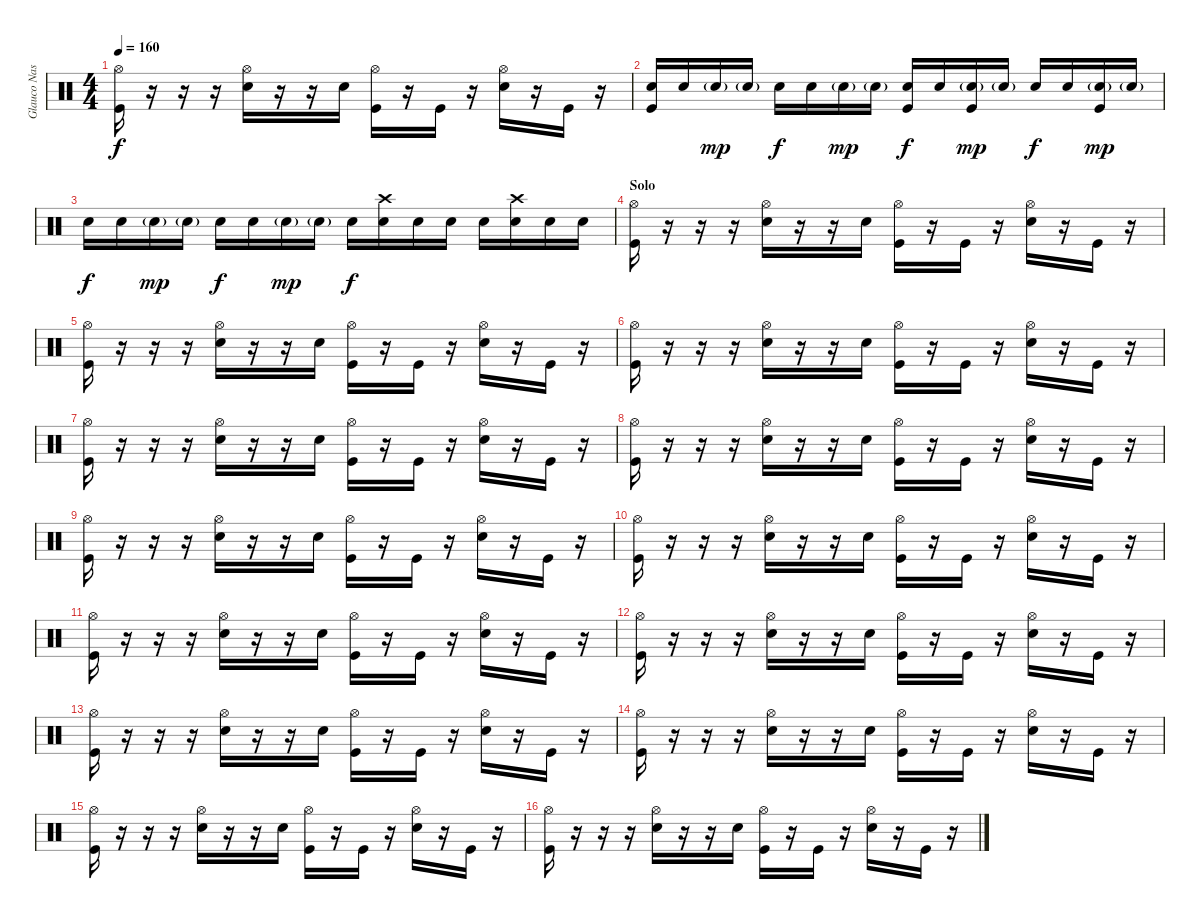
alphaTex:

\track ("Glauco Nastácia" "Glauco Nas") {instrument percussion}
\staff {score}
\articulation defaults
\ts (4 4)
\tempo 160
\clef neutral
\ks c
("Hi-Hat (open)" "Kick (hit)").16{dy f} r.16 r.16 r.16 ("Hi-Hat (open)" "Electric Snare (hit)").16 r.16 r.16 "Electric Snare (hit)".16 ("Hi-Hat (open)" "Kick (hit)").16 r.16 "Kick (hit)".16 r.16 ("Hi-Hat (open)" "Electric Snare (hit)").16 r.16 "Kick (hit)".16 r.16 |
("Electric Snare (hit)" "Kick (hit)").16 "Electric Snare (hit)".16 "Electric Snare (hit)"{g}.16{dy mp} "Electric Snare (hit)"{g}.16 "Electric Snare (hit)".16{dy f} "Electric Snare (hit)".16 "Electric Snare (hit)"{g}.16{dy mp} "Electric Snare (hit)"{g}.16 ("Electric Snare (hit)" "Kick (hit)").16{dy f} "Electric Snare (hit)".16 ("Electric Snare (hit)"{g} "Kick (hit)").16{dy mp} "Electric Snare (hit)"{g}.16 "Electric Snare (hit)".16{dy f} "Electric Snare (hit)".16 ("Electric Snare (hit)"{g} "Kick (hit)").16{dy mp} "Electric Snare (hit)"{g}.16 |
"Electric Snare (hit)".16{dy f} "Electric Snare (hit)".16 "Electric Snare (hit)"{g}.16{dy mp} "Electric Snare (hit)"{g}.16 "Electric Snare (hit)".16{dy f} "Electric Snare (hit)".16 "Electric Snare (hit)"{g}.16{dy mp} "Electric Snare (hit)"{g}.16 "Electric Snare (hit)".16{dy f} ("Crash high (hit)" "Electric Snare (hit)").16 "Electric Snare (hit)".16 "Electric Snare (hit)".16 "Electric Snare (hit)".16 ("Crash high (hit)" "Electric Snare (hit)").16 "Electric Snare (hit)".16 "Electric Snare (hit)".16 |
\section ("" "Solo")
("Hi-Hat (open)" "Kick (hit)").16 r.16 r.16 r.16 ("Hi-Hat (open)" "Electric Snare (hit)").16 r.16 r.16 "Electric Snare (hit)".16 ("Hi-Hat (open)" "Kick (hit)").16 r.16 "Kick (hit)".16 r.16 ("Hi-Hat (open)" "Electric Snare (hit)").16 r.16 "Kick (hit)".16 r.16 |
("Hi-Hat (open)" "Kick (hit)").16 r.16 r.16 r.16 ("Hi-Hat (open)" "Electric Snare (hit)").16 r.16 r.16 "Electric Snare (hit)".16 ("Hi-Hat (open)" "Kick (hit)").16 r.16 "Kick (hit)".16 r.16 ("Hi-Hat (open)" "Electric Snare (hit)").16 r.16 "Kick (hit)".16 r.16 |
("Hi-Hat (open)" "Kick (hit)").16 r.16 r.16 r.16 ("Hi-Hat (open)" "Electric Snare (hit)").16 r.16 r.16 "Electric Snare (hit)".16 ("Hi-Hat (open)" "Kick (hit)").16 r.16 "Kick (hit)".16 r.16 ("Hi-Hat (open)" "Electric Snare (hit)").16 r.16 "Kick (hit)".16 r.16 |
("Hi-Hat (open)" "Kick (hit)").16 r.16 r.16 r.16 ("Hi-Hat (open)" "Electric Snare (hit)").16 r.16 r.16 "Electric Snare (hit)".16 ("Hi-Hat (open)" "Kick (hit)").16 r.16 "Kick (hit)".16 r.16 ("Hi-Hat (open)" "Electric Snare (hit)").16 r.16 "Kick (hit)".16 r.16 |
("Hi-Hat (open)" "Kick (hit)").16 r.16 r.16 r.16 ("Hi-Hat (open)" "Electric Snare (hit)").16 r.16 r.16 "Electric Snare (hit)".16 ("Hi-Hat (open)" "Kick (hit)").16 r.16 "Kick (hit)".16 r.16 ("Hi-Hat (open)" "Electric Snare (hit)").16 r.16 "Kick (hit)".16 r.16 |
("Hi-Hat (open)" "Kick (hit)").16 r.16 r.16 r.16 ("Hi-Hat (open)" "Electric Snare (hit)").16 r.16 r.16 "Electric Snare (hit)".16 ("Hi-Hat (open)" "Kick (hit)").16 r.16 "Kick (hit)".16 r.16 ("Hi-Hat (open)" "Electric Snare (hit)").16 r.16 "Kick (hit)".16 r.16 |
("Hi-Hat (open)" "Kick (hit)").16 r.16 r.16 r.16 ("Hi-Hat (open)" "Electric Snare (hit)").16 r.16 r.16 "Electric Snare (hit)".16 ("Hi-Hat (open)" "Kick (hit)").16 r.16 "Kick (hit)".16 r.16 ("Hi-Hat (open)" "Electric Snare (hit)").16 r.16 "Kick (hit)".16 r.16 |
("Hi-Hat (open)" "Kick (hit)").16 r.16 r.16 r.16 ("Hi-Hat (open)" "Electric Snare (hit)").16 r.16 r.16 "Electric Snare (hit)".16 ("Hi-Hat (open)" "Kick (hit)").16 r.16 "Kick (hit)".16 r.16 ("Hi-Hat (open)" "Electric Snare (hit)").16 r.16 "Kick (hit)".16 r.16 |
("Hi-Hat (open)" "Kick (hit)").16 r.16 r.16 r.16 ("Hi-Hat (open)" "Electric Snare (hit)").16 r.16 r.16 "Electric Snare (hit)".16 ("Hi-Hat (open)" "Kick (hit)").16 r.16 "Kick (hit)".16 r.16 ("Hi-Hat (open)" "Electric Snare (hit)").16 r.16 "Kick (hit)".16 r.16 |
("Hi-Hat (open)" "Kick (hit)").16 r.16 r.16 r.16 ("Hi-Hat (open)" "Electric Snare (hit)").16 r.16 r.16 "Electric Snare (hit)".16 ("Hi-Hat (open)" "Kick (hit)").16 r.16 "Kick (hit)".16 r.16 ("Hi-Hat (open)" "Electric Snare (hit)").16 r.16 "Kick (hit)".16 r.16 |
("Hi-Hat (open)" "Kick (hit)").16 r.16 r.16 r.16 ("Hi-Hat (open)" "Electric Snare (hit)").16 r.16 r.16 "Electric Snare (hit)".16 ("Hi-Hat (open)" "Kick (hit)").16 r.16 "Kick (hit)".16 r.16 ("Hi-Hat (open)" "Electric Snare (hit)").16 r.16 "Kick (hit)".16 r.16 |
("Hi-Hat (open)" "Kick (hit)").16 r.16 r.16 r.16 ("Hi-Hat (open)" "Electric Snare (hit)").16 r.16 r.16 "Electric Snare (hit)".16 ("Hi-Hat (open)" "Kick (hit)").16 r.16 "Kick (hit)".16 r.16 ("Hi-Hat (open)" "Electric Snare (hit)").16 r.16 "Kick (hit)".16 r.16 |
("Hi-Hat (open)" "Kick (hit)").16 r.16 r.16 r.16 ("Hi-Hat (open)" "Electric Snare (hit)").16 r.16 r.16 "Electric Snare (hit)".16 ("Hi-Hat (open)" "Kick (hit)").16 r.16 "Kick (hit)".16 r.16 ("Hi-Hat (open)" "Electric Snare (hit)").16 r.16 "Kick (hit)".16 r.16
